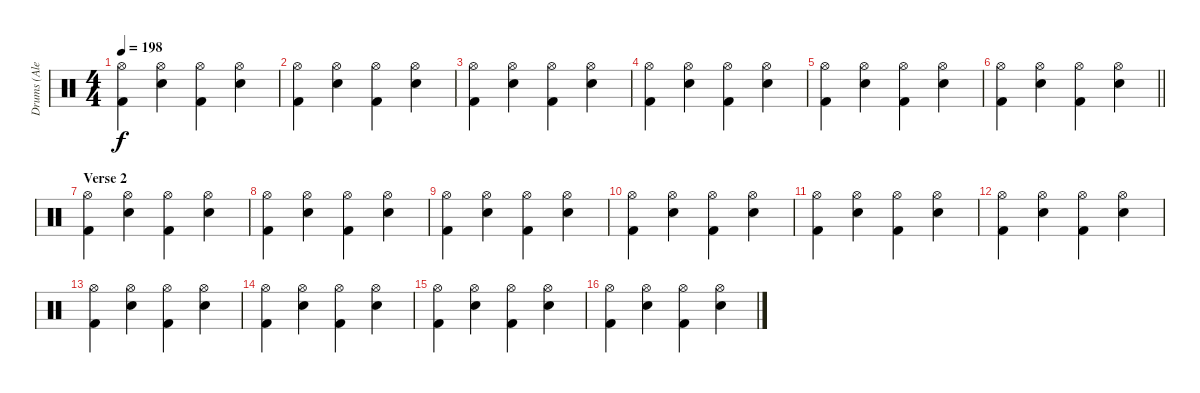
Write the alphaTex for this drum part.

\track ("Drums (Alex Van Halen)" "Drums (Ale") {instrument percussion}
\staff {score}
\articulation defaults
\ts (4 4)
\tempo 198
\clef neutral
\ks c
("Kick (hit) 2" "Hi-Hat (open)").4{dy f} ("Snare (hit) 2" "Hi-Hat (open)").4 ("Kick (hit) 2" "Hi-Hat (open)").4 ("Snare (hit) 2" "Hi-Hat (open)").4 |
("Kick (hit) 2" "Hi-Hat (open)").4 ("Snare (hit) 2" "Hi-Hat (open)").4 ("Kick (hit) 2" "Hi-Hat (open)").4 ("Snare (hit) 2" "Hi-Hat (open)").4 |
("Kick (hit) 2" "Hi-Hat (open)").4 ("Snare (hit) 2" "Hi-Hat (open)").4 ("Kick (hit) 2" "Hi-Hat (open)").4 ("Snare (hit) 2" "Hi-Hat (open)").4 |
("Kick (hit) 2" "Hi-Hat (open)").4 ("Snare (hit) 2" "Hi-Hat (open)").4 ("Kick (hit) 2" "Hi-Hat (open)").4 ("Snare (hit) 2" "Hi-Hat (open)").4 |
("Kick (hit) 2" "Hi-Hat (open)").4 ("Snare (hit) 2" "Hi-Hat (open)").4 ("Kick (hit) 2" "Hi-Hat (open)").4 ("Snare (hit) 2" "Hi-Hat (open)").4 |
\barLineRight lightlight
("Kick (hit) 2" "Hi-Hat (open)").4 ("Snare (hit) 2" "Hi-Hat (open)").4 ("Kick (hit) 2" "Hi-Hat (open)").4 ("Snare (hit) 2" "Hi-Hat (open)").4 |
\section ("" "Verse 2")
("Kick (hit) 2" "Hi-Hat (open)").4 ("Snare (hit) 2" "Hi-Hat (open)").4 ("Kick (hit) 2" "Hi-Hat (open)").4 ("Snare (hit) 2" "Hi-Hat (open)").4 |
("Kick (hit) 2" "Hi-Hat (open)").4 ("Snare (hit) 2" "Hi-Hat (open)").4 ("Kick (hit) 2" "Hi-Hat (open)").4 ("Snare (hit) 2" "Hi-Hat (open)").4 |
("Kick (hit) 2" "Hi-Hat (open)").4 ("Snare (hit) 2" "Hi-Hat (open)").4 ("Kick (hit) 2" "Hi-Hat (open)").4 ("Snare (hit) 2" "Hi-Hat (open)").4 |
("Kick (hit) 2" "Hi-Hat (open)").4 ("Snare (hit) 2" "Hi-Hat (open)").4 ("Kick (hit) 2" "Hi-Hat (open)").4 ("Snare (hit) 2" "Hi-Hat (open)").4 |
("Kick (hit) 2" "Hi-Hat (open)").4 ("Snare (hit) 2" "Hi-Hat (open)").4 ("Kick (hit) 2" "Hi-Hat (open)").4 ("Snare (hit) 2" "Hi-Hat (open)").4 |
("Kick (hit) 2" "Hi-Hat (open)").4 ("Snare (hit) 2" "Hi-Hat (open)").4 ("Kick (hit) 2" "Hi-Hat (open)").4 ("Snare (hit) 2" "Hi-Hat (open)").4 |
("Kick (hit) 2" "Hi-Hat (open)").4 ("Snare (hit) 2" "Hi-Hat (open)").4 ("Kick (hit) 2" "Hi-Hat (open)").4 ("Snare (hit) 2" "Hi-Hat (open)").4 |
("Kick (hit) 2" "Hi-Hat (open)").4 ("Snare (hit) 2" "Hi-Hat (open)").4 ("Kick (hit) 2" "Hi-Hat (open)").4 ("Snare (hit) 2" "Hi-Hat (open)").4 |
("Kick (hit) 2" "Hi-Hat (open)").4 ("Snare (hit) 2" "Hi-Hat (open)").4 ("Kick (hit) 2" "Hi-Hat (open)").4 ("Snare (hit) 2" "Hi-Hat (open)").4 |
("Kick (hit) 2" "Hi-Hat (open)").4 ("Snare (hit) 2" "Hi-Hat (open)").4 ("Kick (hit) 2" "Hi-Hat (open)").4 ("Snare (hit) 2" "Hi-Hat (open)").4
